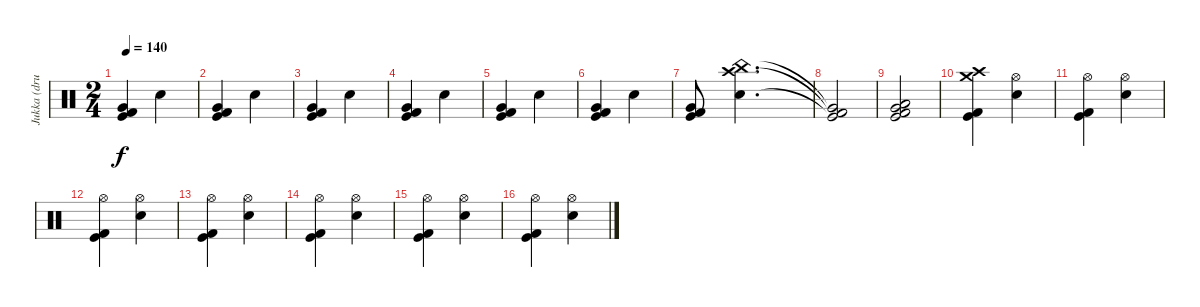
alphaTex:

\track ("Jukka (drums)" "Jukka (dru") {instrument percussion}
\staff {score}
\articulation defaults
\ts (2 4)
\tempo 140
\clef neutral
\ks c
("Kick (hit)" "Kick (hit) 2" "Very Low Tom (hit)").4{dy f} "Electric Snare (hit)".4 |
("Kick (hit)" "Kick (hit) 2" "Very Low Tom (hit)").4 "Electric Snare (hit)".4 |
("Kick (hit)" "Kick (hit) 2" "Very Low Tom (hit)").4 "Electric Snare (hit)".4 |
("Kick (hit)" "Kick (hit) 2" "Very Low Tom (hit)").4 "Electric Snare (hit)".4 |
("Kick (hit)" "Kick (hit) 2" "Very Low Tom (hit)").4 "Electric Snare (hit)".4 |
("Kick (hit)" "Kick (hit) 2" "Very Low Tom (hit)").4 "Electric Snare (hit)".4 |
("Kick (hit)" "Kick (hit) 2" "Very Low Tom (hit)").8 ("Electric Snare (hit)" "Crash high (hit)" "China (hit)").4{d} |
("Kick (hit)"{t} "Kick (hit) 2"{t} "Very Low Tom (hit)"{t}).2 |
("Very Low Tom (hit)" "Low Tom (hit)" "Kick (hit)" "Kick (hit) 2").2 |
("Kick (hit)" "Kick (hit) 2" "Crash high (hit)" "Crash medium (hit)").4 ("Electric Snare (hit)" "Hi-Hat (open)").4 |
("Kick (hit)" "Kick (hit) 2" "Hi-Hat (open)").4 ("Electric Snare (hit)" "Hi-Hat (open)").4 |
("Kick (hit)" "Kick (hit) 2" "Hi-Hat (open)").4 ("Electric Snare (hit)" "Hi-Hat (open)").4 |
("Kick (hit)" "Kick (hit) 2" "Hi-Hat (open)").4 ("Electric Snare (hit)" "Hi-Hat (open)").4 |
("Kick (hit)" "Kick (hit) 2" "Hi-Hat (open)").4 ("Electric Snare (hit)" "Hi-Hat (open)").4 |
("Kick (hit)" "Kick (hit) 2" "Hi-Hat (open)").4 ("Electric Snare (hit)" "Hi-Hat (open)").4 |
("Kick (hit)" "Kick (hit) 2" "Hi-Hat (open)").4 ("Electric Snare (hit)" "Hi-Hat (open)").4
